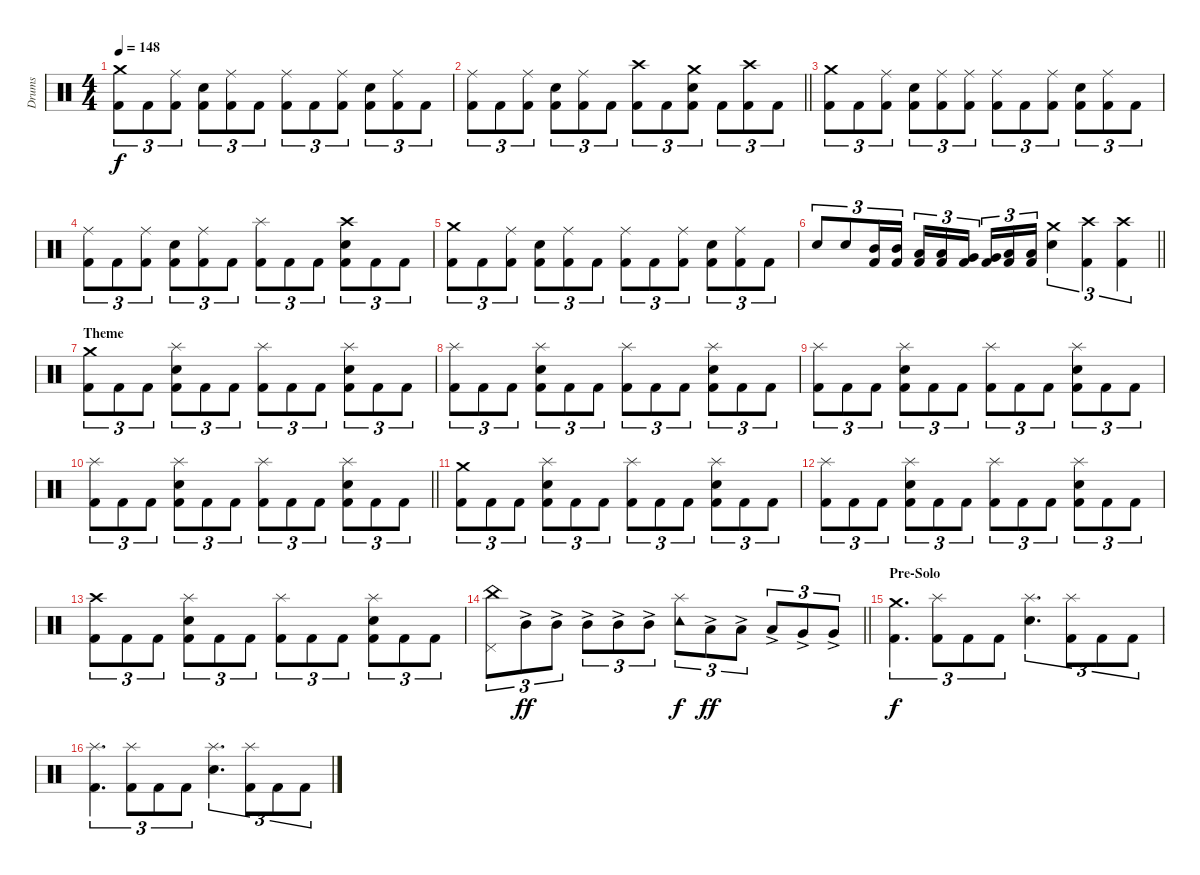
\track ("Drums" "Drums") {instrument percussion}
\staff {score}
\articulation defaults
\ts (4 4)
\tempo 148
\clef neutral
\ks c
("Kick (hit) 2" "Crash medium (hit)").8{tu (3 2) dy f} "Kick (hit) 2".8{tu (3 2)} ("Kick (hit) 2" "Ride (middle)").8{tu (3 2)} ("Kick (hit) 2" "Snare (hit) 2").8{tu (3 2)} ("Kick (hit) 2" "Ride (middle)").8{tu (3 2)} "Kick (hit) 2".8{tu (3 2)} ("Kick (hit) 2" "Ride (middle)").8{tu (3 2)} "Kick (hit) 2".8{tu (3 2)} ("Kick (hit) 2" "Ride (middle)").8{tu (3 2)} ("Kick (hit) 2" "Snare (hit) 2").8{tu (3 2)} ("Kick (hit) 2" "Ride (middle)").8{tu (3 2)} "Kick (hit) 2".8{tu (3 2)} |
\barLineRight lightlight
("Kick (hit) 2" "Ride (middle)").8{tu (3 2)} "Kick (hit) 2".8{tu (3 2)} ("Kick (hit) 2" "Ride (middle)").8{tu (3 2)} ("Kick (hit) 2" "Snare (hit) 2").8{tu (3 2)} ("Kick (hit) 2" "Ride (middle)").8{tu (3 2)} "Kick (hit) 2".8{tu (3 2)} ("Kick (hit) 2" "Crash high (hit)").8{tu (3 2)} "Kick (hit) 2".8{tu (3 2)} ("Kick (hit) 2" "Snare (hit) 2" "Crash medium (hit)").8{tu (3 2)} "Kick (hit) 2".8{tu (3 2)} ("Kick (hit) 2" "Crash high (hit)").8{tu (3 2)} "Kick (hit) 2".8{tu (3 2)} |
\section ("" "")
("Kick (hit) 2" "Crash medium (hit)").8{tu (3 2)} "Kick (hit) 2".8{tu (3 2)} ("Kick (hit) 2" "Ride (middle)").8{tu (3 2)} ("Kick (hit) 2" "Snare (hit) 2").8{tu (3 2)} ("Kick (hit) 2" "Ride (middle)").8{tu (3 2)} ("Kick (hit) 2" "Ride (middle)").8{tu (3 2)} ("Kick (hit) 2" "Ride (middle)").8{tu (3 2)} "Kick (hit) 2".8{tu (3 2)} ("Kick (hit) 2" "Ride (middle)").8{tu (3 2)} ("Kick (hit) 2" "Snare (hit) 2").8{tu (3 2)} ("Kick (hit) 2" "Ride (middle)").8{tu (3 2)} "Kick (hit) 2".8{tu (3 2)} |
("Kick (hit) 2" "Ride (middle)").8{tu (3 2)} "Kick (hit) 2".8{tu (3 2)} ("Kick (hit) 2" "Ride (middle)").8{tu (3 2)} ("Kick (hit) 2" "Snare (hit) 2").8{tu (3 2)} ("Kick (hit) 2" "Ride (middle)").8{tu (3 2)} "Kick (hit) 2".8{tu (3 2)} ("Kick (hit) 2" "Splash (hit)").8{tu (3 2)} "Kick (hit) 2".8{tu (3 2)} "Kick (hit) 2".8{tu (3 2)} ("Kick (hit) 2" "Snare (hit) 2" "Crash high (hit)").8{tu (3 2)} "Kick (hit) 2".8{tu (3 2)} "Kick (hit) 2".8{tu (3 2)} |
("Kick (hit) 2" "Crash medium (hit)").8{tu (3 2)} "Kick (hit) 2".8{tu (3 2)} ("Kick (hit) 2" "Ride (middle)").8{tu (3 2)} ("Kick (hit) 2" "Snare (hit) 2").8{tu (3 2)} ("Kick (hit) 2" "Ride (middle)").8{tu (3 2)} "Kick (hit) 2".8{tu (3 2)} ("Kick (hit) 2" "Ride (middle)").8{tu (3 2)} "Kick (hit) 2".8{tu (3 2)} ("Kick (hit) 2" "Ride (middle)").8{tu (3 2)} ("Kick (hit) 2" "Snare (hit) 2").8{tu (3 2)} ("Kick (hit) 2" "Ride (middle)").8{tu (3 2)} "Kick (hit) 2".8{tu (3 2)} |
\barLineRight lightlight "Snare (hit) 2".8{tu (3 2)} "Snare (hit) 2".8{tu (3 2)}
("Kick (hit) 2" "Mid Tom (hit)").16{tu (3 2)} ("Kick (hit) 2" "Mid Tom (hit)").16{tu (3 2)} ("Kick (hit) 2" "Low Tom (hit)").16{tu (3 2)} ("Kick (hit) 2" "Low Tom (hit)").16{tu (3 2)} ("Kick (hit) 2" "Very Low Tom (hit)").16{tu (3 2) beam splitsecondary} ("Kick (hit) 2" "Very Low Tom (hit)").16{tu (3 2)} ("Kick (hit) 2" "Low Floor Tom (hit)").16{tu (3 2)} ("Kick (hit) 2" "Low Floor Tom (hit)").16{tu (3 2)} ("Snare (hit) 2" "Crash medium (hit)").4{tu (3 2)} ("Kick (hit) 2" "Crash high (hit)").4{tu (3 2)} ("Kick (hit) 2" "Crash high (hit)").4{tu (3 2)} |
\section ("" "Theme")
("Kick (hit) 2" "Crash medium (hit)").8{tu (3 2)} "Kick (hit) 2".8{tu (3 2)} "Kick (hit) 2".8{tu (3 2)} ("Kick (hit) 2" "Snare (hit) 2" "Splash (hit)").8{tu (3 2)} "Kick (hit) 2".8{tu (3 2)} "Kick (hit) 2".8{tu (3 2)} ("Kick (hit) 2" "Splash (hit)").8{tu (3 2)} "Kick (hit) 2".8{tu (3 2)} "Kick (hit) 2".8{tu (3 2)} ("Kick (hit) 2" "Snare (hit) 2" "Splash (hit)").8{tu (3 2)} "Kick (hit) 2".8{tu (3 2)} "Kick (hit) 2".8{tu (3 2)} |
("Kick (hit) 2" "Splash (hit)").8{tu (3 2)} "Kick (hit) 2".8{tu (3 2)} "Kick (hit) 2".8{tu (3 2)} ("Kick (hit) 2" "Snare (hit) 2" "Splash (hit)").8{tu (3 2)} "Kick (hit) 2".8{tu (3 2)} "Kick (hit) 2".8{tu (3 2)} ("Kick (hit) 2" "Splash (hit)").8{tu (3 2)} "Kick (hit) 2".8{tu (3 2)} "Kick (hit) 2".8{tu (3 2)} ("Kick (hit) 2" "Snare (hit) 2" "Splash (hit)").8{tu (3 2)} "Kick (hit) 2".8{tu (3 2)} "Kick (hit) 2".8{tu (3 2)} |
("Kick (hit) 2" "Splash (hit)").8{tu (3 2)} "Kick (hit) 2".8{tu (3 2)} "Kick (hit) 2".8{tu (3 2)} ("Kick (hit) 2" "Snare (hit) 2" "Splash (hit)").8{tu (3 2)} "Kick (hit) 2".8{tu (3 2)} "Kick (hit) 2".8{tu (3 2)} ("Kick (hit) 2" "Splash (hit)").8{tu (3 2)} "Kick (hit) 2".8{tu (3 2)} "Kick (hit) 2".8{tu (3 2)} ("Kick (hit) 2" "Snare (hit) 2" "Splash (hit)").8{tu (3 2)} "Kick (hit) 2".8{tu (3 2)} "Kick (hit) 2".8{tu (3 2)} |
\barLineRight lightlight
("Kick (hit) 2" "Splash (hit)").8{tu (3 2)} "Kick (hit) 2".8{tu (3 2)} "Kick (hit) 2".8{tu (3 2)} ("Kick (hit) 2" "Snare (hit) 2" "Splash (hit)").8{tu (3 2)} "Kick (hit) 2".8{tu (3 2)} "Kick (hit) 2".8{tu (3 2)} ("Kick (hit) 2" "Splash (hit)").8{tu (3 2)} "Kick (hit) 2".8{tu (3 2)} "Kick (hit) 2".8{tu (3 2)} ("Kick (hit) 2" "Snare (hit) 2" "Splash (hit)").8{tu (3 2)} "Kick (hit) 2".8{tu (3 2)} "Kick (hit) 2".8{tu (3 2)} |
\section ("" "")
("Kick (hit) 2" "Crash medium (hit)").8{tu (3 2)} "Kick (hit) 2".8{tu (3 2)} "Kick (hit) 2".8{tu (3 2)} ("Kick (hit) 2" "Snare (hit) 2" "Splash (hit)").8{tu (3 2)} "Kick (hit) 2".8{tu (3 2)} "Kick (hit) 2".8{tu (3 2)} ("Kick (hit) 2" "Splash (hit)").8{tu (3 2)} "Kick (hit) 2".8{tu (3 2)} "Kick (hit) 2".8{tu (3 2)} ("Kick (hit) 2" "Snare (hit) 2" "Splash (hit)").8{tu (3 2)} "Kick (hit) 2".8{tu (3 2)} "Kick (hit) 2".8{tu (3 2)} |
("Kick (hit) 2" "Splash (hit)").8{tu (3 2)} "Kick (hit) 2".8{tu (3 2)} "Kick (hit) 2".8{tu (3 2)} ("Kick (hit) 2" "Snare (hit) 2" "Splash (hit)").8{tu (3 2)} "Kick (hit) 2".8{tu (3 2)} "Kick (hit) 2".8{tu (3 2)} ("Kick (hit) 2" "Splash (hit)").8{tu (3 2)} "Kick (hit) 2".8{tu (3 2)} "Kick (hit) 2".8{tu (3 2)} ("Kick (hit) 2" "Snare (hit) 2" "Splash (hit)").8{tu (3 2)} "Kick (hit) 2".8{tu (3 2)} "Kick (hit) 2".8{tu (3 2)} |
("Kick (hit) 2" "Crash high (hit)").8{tu (3 2)} "Kick (hit) 2".8{tu (3 2)} "Kick (hit) 2".8{tu (3 2)} ("Kick (hit) 2" "Snare (hit) 2" "Splash (hit)").8{tu (3 2)} "Kick (hit) 2".8{tu (3 2)} "Kick (hit) 2".8{tu (3 2)} ("Kick (hit) 2" "Splash (hit)").8{tu (3 2)} "Kick (hit) 2".8{tu (3 2)} "Kick (hit) 2".8{tu (3 2)} ("Kick (hit) 2" "Snare (hit) 2" "Splash (hit)").8{tu (3 2)} "Kick (hit) 2".8{tu (3 2)} "Kick (hit) 2".8{tu (3 2)} |
\barLineRight lightlight
("Pedal Hi-Hat (hit)" "China (hit)").8{tu (3 2)} "Mid Tom (hit)"{ac}.8{tu (3 2) dy ff} "Mid Tom (hit)"{ac}.8{tu (3 2)} "Mid Tom (hit)"{ac}.8{tu (3 2)} "Mid Tom (hit)"{ac}.8{tu (3 2)} "Mid Tom (hit)"{ac}.8{tu (3 2)} ("Tambourine (hit)" "Splash (hit)").8{tu (3 2) dy f} "Low Tom (hit)"{ac}.8{tu (3 2) dy ff} "Low Tom (hit)"{ac}.8{tu (3 2)} "Low Tom (hit)"{ac}.8{tu (3 2)} "Very Low Tom (hit)"{ac}.8{tu (3 2)} "Very Low Tom (hit)"{ac}.8{tu (3 2)} |
\section ("" "Pre-Solo")
("Kick (hit) 2" "Crash medium (hit)").4{d tu (3 2) dy f} ("Kick (hit) 2" "Splash (hit)").8{tu (3 2)} "Kick (hit) 2".8{tu (3 2)} "Kick (hit) 2".8{tu (3 2)} ("Snare (hit) 2" "Splash (hit)").4{d tu (3 2)} ("Kick (hit) 2" "Splash (hit)").8{tu (3 2)} "Kick (hit) 2".8{tu (3 2)} "Kick (hit) 2".8{tu (3 2)} |
("Kick (hit) 2" "Splash (hit)").4{d tu (3 2)} ("Kick (hit) 2" "Splash (hit)").8{tu (3 2)} "Kick (hit) 2".8{tu (3 2)} "Kick (hit) 2".8{tu (3 2)} ("Snare (hit) 2" "Splash (hit)").4{d tu (3 2)} ("Kick (hit) 2" "Splash (hit)").8{tu (3 2)} "Kick (hit) 2".8{tu (3 2)} "Kick (hit) 2".8{tu (3 2)}
